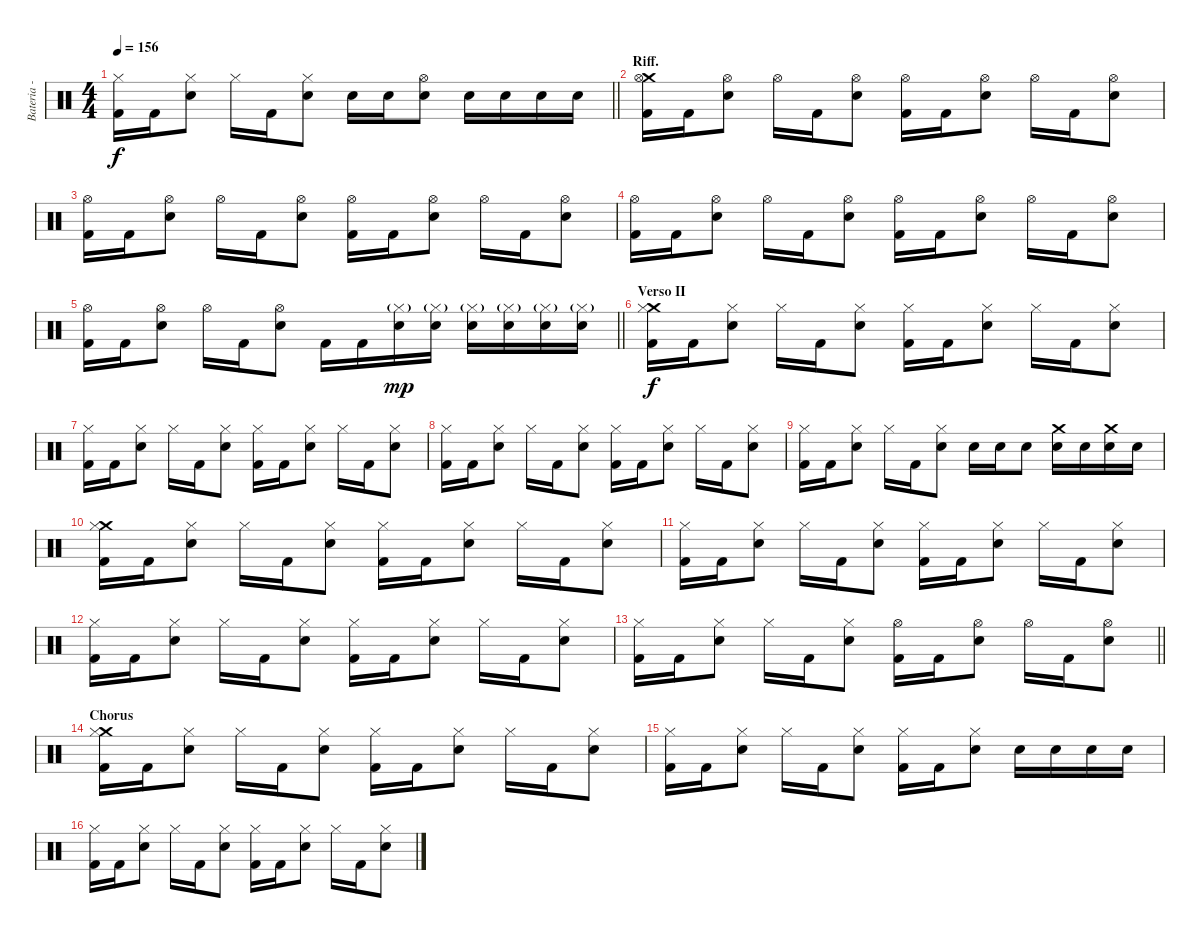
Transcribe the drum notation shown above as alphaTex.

\track ("Bateria - Larzon" "Bateria - ") {instrument percussion}
\staff {score}
\articulation defaults
\ts (4 4)
\tempo 156
\clef neutral
\barLineRight lightlight
\ks c
("Kick (hit) 2" "Hi-Hat (closed)").16{dy f} "Kick (hit) 2".16 ("Snare (hit) 2" "Hi-Hat (closed)").8 "Hi-Hat (closed)".16 "Kick (hit) 2".16 ("Snare (hit) 2" "Hi-Hat (closed)").8 "Snare (hit) 2".16 "Snare (hit) 2".16 ("Snare (hit) 2" "Hi-Hat (open)").8 "Snare (hit) 2".16 "Snare (hit) 2".16 "Snare (hit) 2".16 "Snare (hit) 2".16 |
\section ("" "Riff.")
("Crash medium (hit)" "Kick (hit) 2" "Hi-Hat (open)").16 "Kick (hit) 2".16 ("Snare (hit) 2" "Hi-Hat (open)").8 "Hi-Hat (open)".16 "Kick (hit) 2".16 ("Snare (hit) 2" "Hi-Hat (open)").8 ("Kick (hit) 2" "Hi-Hat (open)").16 "Kick (hit) 2".16 ("Snare (hit) 2" "Hi-Hat (open)").8 "Hi-Hat (open)".16 "Kick (hit) 2".16 ("Snare (hit) 2" "Hi-Hat (open)").8 |
("Kick (hit) 2" "Hi-Hat (open)").16 "Kick (hit) 2".16 ("Snare (hit) 2" "Hi-Hat (open)").8 "Hi-Hat (open)".16 "Kick (hit) 2".16 ("Snare (hit) 2" "Hi-Hat (open)").8 ("Kick (hit) 2" "Hi-Hat (open)").16 "Kick (hit) 2".16 ("Snare (hit) 2" "Hi-Hat (open)").8 "Hi-Hat (open)".16 "Kick (hit) 2".16 ("Snare (hit) 2" "Hi-Hat (open)").8 |
("Kick (hit) 2" "Hi-Hat (open)").16 "Kick (hit) 2".16 ("Snare (hit) 2" "Hi-Hat (open)").8 "Hi-Hat (open)".16 "Kick (hit) 2".16 ("Snare (hit) 2" "Hi-Hat (open)").8 ("Kick (hit) 2" "Hi-Hat (open)").16 "Kick (hit) 2".16 ("Snare (hit) 2" "Hi-Hat (open)").8 "Hi-Hat (open)".16 "Kick (hit) 2".16 ("Snare (hit) 2" "Hi-Hat (open)").8 |
\barLineRight lightlight
("Kick (hit) 2" "Hi-Hat (open)").16 "Kick (hit) 2".16 ("Snare (hit) 2" "Hi-Hat (open)").8 "Hi-Hat (open)".16 "Kick (hit) 2".16 ("Snare (hit) 2" "Hi-Hat (open)").8 "Kick (hit) 2".16 "Kick (hit) 2".16 ("Snare (hit) 2" "Hi-Hat (closed)"{g}).16{dy mp} ("Snare (hit) 2" "Hi-Hat (closed)"{g}).16 ("Snare (hit) 2" "Hi-Hat (closed)"{g}).16 ("Snare (hit) 2" "Hi-Hat (closed)"{g}).16 ("Snare (hit) 2" "Hi-Hat (closed)"{g}).16 ("Snare (hit) 2" "Hi-Hat (closed)"{g}).16 |
\section ("" "Verso II")
("Crash medium (hit)" "Kick (hit) 2" "Hi-Hat (closed)").16{dy f} "Kick (hit) 2".16 ("Snare (hit) 2" "Hi-Hat (closed)").8 "Hi-Hat (closed)".16 "Kick (hit) 2".16 ("Snare (hit) 2" "Hi-Hat (closed)").8 ("Kick (hit) 2" "Hi-Hat (closed)").16 "Kick (hit) 2".16 ("Snare (hit) 2" "Hi-Hat (closed)").8 "Hi-Hat (closed)".16 "Kick (hit) 2".16 ("Snare (hit) 2" "Hi-Hat (closed)").8 |
("Kick (hit) 2" "Hi-Hat (closed)").16 "Kick (hit) 2".16 ("Snare (hit) 2" "Hi-Hat (closed)").8 "Hi-Hat (closed)".16 "Kick (hit) 2".16 ("Snare (hit) 2" "Hi-Hat (closed)").8 ("Kick (hit) 2" "Hi-Hat (closed)").16 "Kick (hit) 2".16 ("Snare (hit) 2" "Hi-Hat (closed)").8 "Hi-Hat (closed)".16 "Kick (hit) 2".16 ("Snare (hit) 2" "Hi-Hat (closed)").8 |
("Kick (hit) 2" "Hi-Hat (closed)").16 "Kick (hit) 2".16 ("Snare (hit) 2" "Hi-Hat (closed)").8 "Hi-Hat (closed)".16 "Kick (hit) 2".16 ("Snare (hit) 2" "Hi-Hat (closed)").8 ("Kick (hit) 2" "Hi-Hat (closed)").16 "Kick (hit) 2".16 ("Snare (hit) 2" "Hi-Hat (closed)").8 "Hi-Hat (closed)".16 "Kick (hit) 2".16 ("Snare (hit) 2" "Hi-Hat (closed)").8 |
("Kick (hit) 2" "Hi-Hat (closed)").16 "Kick (hit) 2".16 ("Snare (hit) 2" "Hi-Hat (closed)").8 "Hi-Hat (closed)".16 "Kick (hit) 2".16 ("Snare (hit) 2" "Hi-Hat (closed)").8 "Snare (hit) 2".16 "Snare (hit) 2".16 "Snare (hit) 2".8 ("Crash medium (hit)" "Snare (hit) 2").16 "Snare (hit) 2".16 ("Crash medium (hit)" "Snare (hit) 2").16 "Snare (hit) 2".16 |
("Crash medium (hit)" "Kick (hit) 2" "Hi-Hat (closed)").16 "Kick (hit) 2".16 ("Snare (hit) 2" "Hi-Hat (closed)").8 "Hi-Hat (closed)".16 "Kick (hit) 2".16 ("Snare (hit) 2" "Hi-Hat (closed)").8 ("Kick (hit) 2" "Hi-Hat (closed)").16 "Kick (hit) 2".16 ("Snare (hit) 2" "Hi-Hat (closed)").8 "Hi-Hat (closed)".16 "Kick (hit) 2".16 ("Snare (hit) 2" "Hi-Hat (closed)").8 |
("Kick (hit) 2" "Hi-Hat (closed)").16 "Kick (hit) 2".16 ("Snare (hit) 2" "Hi-Hat (closed)").8 "Hi-Hat (closed)".16 "Kick (hit) 2".16 ("Snare (hit) 2" "Hi-Hat (closed)").8 ("Kick (hit) 2" "Hi-Hat (closed)").16 "Kick (hit) 2".16 ("Snare (hit) 2" "Hi-Hat (closed)").8 "Hi-Hat (closed)".16 "Kick (hit) 2".16 ("Snare (hit) 2" "Hi-Hat (closed)").8 |
("Kick (hit) 2" "Hi-Hat (closed)").16 "Kick (hit) 2".16 ("Snare (hit) 2" "Hi-Hat (closed)").8 "Hi-Hat (closed)".16 "Kick (hit) 2".16 ("Snare (hit) 2" "Hi-Hat (closed)").8 ("Kick (hit) 2" "Hi-Hat (closed)").16 "Kick (hit) 2".16 ("Snare (hit) 2" "Hi-Hat (closed)").8 "Hi-Hat (closed)".16 "Kick (hit) 2".16 ("Snare (hit) 2" "Hi-Hat (closed)").8 |
\barLineRight lightlight
("Kick (hit) 2" "Hi-Hat (closed)").16 "Kick (hit) 2".16 ("Snare (hit) 2" "Hi-Hat (closed)").8 "Hi-Hat (closed)".16 "Kick (hit) 2".16 ("Snare (hit) 2" "Hi-Hat (closed)").8 ("Kick (hit) 2" "Hi-Hat (open)").16 "Kick (hit) 2".16 ("Snare (hit) 2" "Hi-Hat (open)").8 "Hi-Hat (open)".16 "Kick (hit) 2".16 ("Snare (hit) 2" "Hi-Hat (open)").8 |
\section ("" "Chorus")
("Crash medium (hit)" "Kick (hit) 2" "Hi-Hat (closed)").16 "Kick (hit) 2".16 ("Snare (hit) 2" "Hi-Hat (closed)").8 "Hi-Hat (closed)".16 "Kick (hit) 2".16 ("Snare (hit) 2" "Hi-Hat (closed)").8 ("Kick (hit) 2" "Hi-Hat (closed)").16 "Kick (hit) 2".16 ("Snare (hit) 2" "Hi-Hat (closed)").8 "Hi-Hat (closed)".16 "Kick (hit) 2".16 ("Snare (hit) 2" "Hi-Hat (closed)").8 |
("Kick (hit) 2" "Hi-Hat (closed)").16 "Kick (hit) 2".16 ("Snare (hit) 2" "Hi-Hat (closed)").8 "Hi-Hat (closed)".16 "Kick (hit) 2".16 ("Snare (hit) 2" "Hi-Hat (closed)").8 ("Kick (hit) 2" "Hi-Hat (closed)").16 "Kick (hit) 2".16 ("Snare (hit) 2" "Hi-Hat (closed)").8 "Snare (hit) 2".16 "Snare (hit) 2".16 "Snare (hit) 2".16 "Snare (hit) 2".16 |
("Kick (hit) 2" "Hi-Hat (closed)").16 "Kick (hit) 2".16 ("Snare (hit) 2" "Hi-Hat (closed)").8 "Hi-Hat (closed)".16 "Kick (hit) 2".16 ("Snare (hit) 2" "Hi-Hat (closed)").8 ("Kick (hit) 2" "Hi-Hat (closed)").16 "Kick (hit) 2".16 ("Snare (hit) 2" "Hi-Hat (closed)").8 "Hi-Hat (closed)".16 "Kick (hit) 2".16 ("Snare (hit) 2" "Hi-Hat (closed)").8
